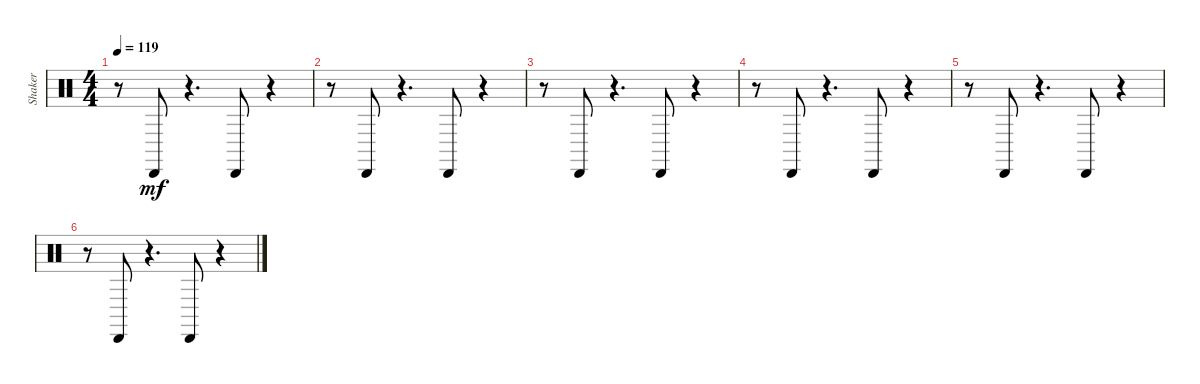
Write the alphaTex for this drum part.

\track ("Shaker" "Shaker") {instrument percussion}
\staff {score}
\articulation defaults
\ts (4 4)
\tempo 119
\clef neutral
\ks c
r.8{dy mf} "Cabasa (hit)".8 r.4{d} "Cabasa (hit)".8 r.4 |
r.8 "Cabasa (hit)".8 r.4{d} "Cabasa (hit)".8 r.4 |
r.8 "Cabasa (hit)".8 r.4{d} "Cabasa (hit)".8 r.4 |
r.8 "Cabasa (hit)".8 r.4{d} "Cabasa (hit)".8 r.4 |
r.8 "Cabasa (hit)".8 r.4{d} "Cabasa (hit)".8 r.4 |
r.8 "Cabasa (hit)".8 r.4{d} "Cabasa (hit)".8 r.4
